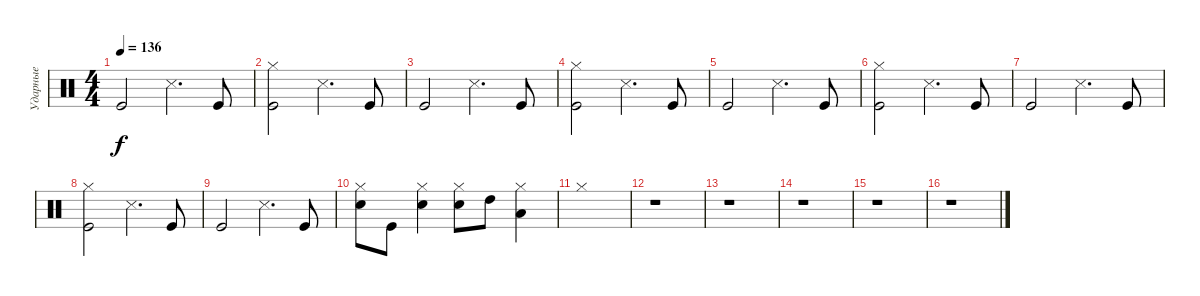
\track ("Ударные" "Ударные") {instrument percussion}
\staff {score}
\articulation defaults
\ts (4 4)
\tempo 136
\clef neutral
\ks c "Kick (hit)".2{dy f} "Snare (side stick) 3".4{d} "Kick (hit)".8
|
("Kick (hit)" "Hi-Hat (closed)").2 "Snare (side stick) 3".4{d} "Kick (hit)".8 |
"Kick (hit)".2 "Snare (side stick) 3".4{d} "Kick (hit)".8 |
("Kick (hit)" "Hi-Hat (closed)").2 "Snare (side stick) 3".4{d} "Kick (hit)".8 |
"Kick (hit)".2 "Snare (side stick) 3".4{d} "Kick (hit)".8 |
("Kick (hit)" "Hi-Hat (closed)").2 "Snare (side stick) 3".4{d} "Kick (hit)".8 |
"Kick (hit)".2 "Snare (side stick) 3".4{d} "Kick (hit)".8 |
("Kick (hit)" "Hi-Hat (closed)").2 "Snare (side stick) 3".4{d} "Kick (hit)".8 |
"Kick (hit)".2 "Snare (side stick) 3".4{d} "Kick (hit)".8 |
("Hi-Hat (closed)" "Snare (hit) 2").8 "Kick (hit)".8 ("Hi-Hat (closed)" "Snare (hit) 2").4 ("Hi-Hat (closed)" "Snare (hit) 2").8 "High Tom (hit)".8 ("Hi-Hat (closed)" "Low Tom (hit)").4 |
"Hi-Hat (closed)".1 |
r.1 |
r.1 |
r.1 |
r.1 |
r.1
